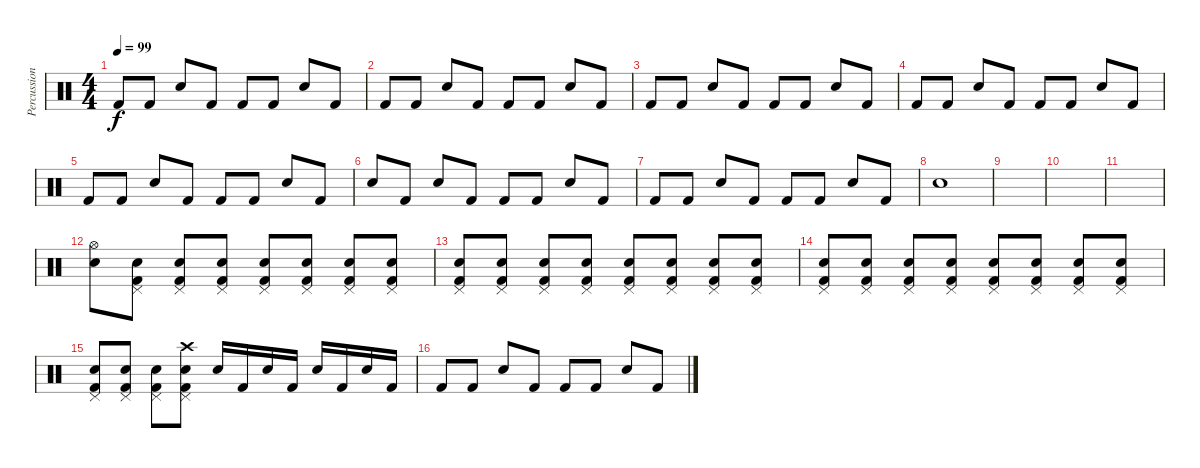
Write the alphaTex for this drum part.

\track ("Percussion" "Percussion") {instrument percussion}
\staff {score}
\articulation defaults
\ts (4 4)
\tempo 99
\clef neutral
\ks c "Kick (hit) 2".8{dy f} "Kick (hit) 2".8 "Electric Snare (hit)".8 "Kick (hit) 2".8 "Kick (hit) 2".8 "Kick (hit) 2".8 "Electric Snare (hit)".8 "Kick (hit) 2".8
|
"Kick (hit) 2".8 "Kick (hit) 2".8 "Electric Snare (hit)".8 "Kick (hit) 2".8 "Kick (hit) 2".8 "Kick (hit) 2".8 "Electric Snare (hit)".8 "Kick (hit) 2".8 |
"Kick (hit) 2".8 "Kick (hit) 2".8 "Electric Snare (hit)".8 "Kick (hit) 2".8 "Kick (hit) 2".8 "Kick (hit) 2".8 "Electric Snare (hit)".8 "Kick (hit) 2".8 |
"Kick (hit) 2".8 "Kick (hit) 2".8 "Electric Snare (hit)".8 "Kick (hit) 2".8 "Kick (hit) 2".8 "Kick (hit) 2".8 "Electric Snare (hit)".8 "Kick (hit) 2".8 |
"Kick (hit) 2".8 "Kick (hit) 2".8 "Electric Snare (hit)".8 "Kick (hit) 2".8 "Kick (hit) 2".8 "Kick (hit) 2".8 "Electric Snare (hit)".8 "Kick (hit) 2".8 |
"Electric Snare (hit)".8 "Kick (hit) 2".8 "Electric Snare (hit)".8 "Kick (hit) 2".8 "Kick (hit) 2".8 "Kick (hit) 2".8 "Electric Snare (hit)".8 "Kick (hit) 2".8 |
"Kick (hit) 2".8 "Kick (hit) 2".8 "Electric Snare (hit)".8 "Kick (hit) 2".8 "Kick (hit) 2".8 "Kick (hit) 2".8 "Electric Snare (hit)".8 "Kick (hit) 2".8 |
"Electric Snare (hit)".1 |
|
|
|
("Hi-Hat (open)" "Electric Snare (hit)").8 ("Pedal Hi-Hat (hit)" "Electric Snare (hit)" "Kick (hit) 2").8 ("Pedal Hi-Hat (hit)" "Electric Snare (hit)" "Kick (hit) 2").8 ("Pedal Hi-Hat (hit)" "Electric Snare (hit)" "Kick (hit) 2").8 ("Pedal Hi-Hat (hit)" "Electric Snare (hit)" "Kick (hit) 2").8 ("Pedal Hi-Hat (hit)" "Electric Snare (hit)" "Kick (hit) 2").8 ("Pedal Hi-Hat (hit)" "Electric Snare (hit)" "Kick (hit) 2").8 ("Pedal Hi-Hat (hit)" "Electric Snare (hit)" "Kick (hit) 2").8 |
("Pedal Hi-Hat (hit)" "Electric Snare (hit)" "Kick (hit) 2").8 ("Pedal Hi-Hat (hit)" "Electric Snare (hit)" "Kick (hit) 2").8 ("Pedal Hi-Hat (hit)" "Electric Snare (hit)" "Kick (hit) 2").8 ("Pedal Hi-Hat (hit)" "Electric Snare (hit)" "Kick (hit) 2").8 ("Pedal Hi-Hat (hit)" "Electric Snare (hit)" "Kick (hit) 2").8 ("Pedal Hi-Hat (hit)" "Electric Snare (hit)" "Kick (hit) 2").8 ("Pedal Hi-Hat (hit)" "Electric Snare (hit)" "Kick (hit) 2").8 ("Pedal Hi-Hat (hit)" "Electric Snare (hit)" "Kick (hit) 2").8 |
("Pedal Hi-Hat (hit)" "Electric Snare (hit)" "Kick (hit) 2").8 ("Pedal Hi-Hat (hit)" "Electric Snare (hit)" "Kick (hit) 2").8 ("Pedal Hi-Hat (hit)" "Electric Snare (hit)" "Kick (hit) 2").8 ("Pedal Hi-Hat (hit)" "Electric Snare (hit)" "Kick (hit) 2").8 ("Pedal Hi-Hat (hit)" "Electric Snare (hit)" "Kick (hit) 2").8 ("Pedal Hi-Hat (hit)" "Electric Snare (hit)" "Kick (hit) 2").8 ("Pedal Hi-Hat (hit)" "Electric Snare (hit)" "Kick (hit) 2").8 ("Pedal Hi-Hat (hit)" "Electric Snare (hit)" "Kick (hit) 2").8 |
("Pedal Hi-Hat (hit)" "Electric Snare (hit)" "Kick (hit) 2").8 ("Pedal Hi-Hat (hit)" "Electric Snare (hit)" "Kick (hit) 2").8 ("Pedal Hi-Hat (hit)" "Electric Snare (hit)" "Kick (hit) 2").8 ("Pedal Hi-Hat (hit)" "Electric Snare (hit)" "Kick (hit) 2" "Crash high (hit)").8 "Electric Snare (hit)".16 "Kick (hit) 2".16 "Electric Snare (hit)".16 "Kick (hit) 2".16 "Electric Snare (hit)".16 "Kick (hit) 2".16 "Electric Snare (hit)".16 "Kick (hit) 2".16 |
"Kick (hit) 2".8 "Kick (hit) 2".8 "Electric Snare (hit)".8 "Kick (hit) 2".8 "Kick (hit) 2".8 "Kick (hit) 2".8 "Electric Snare (hit)".8 "Kick (hit) 2".8
